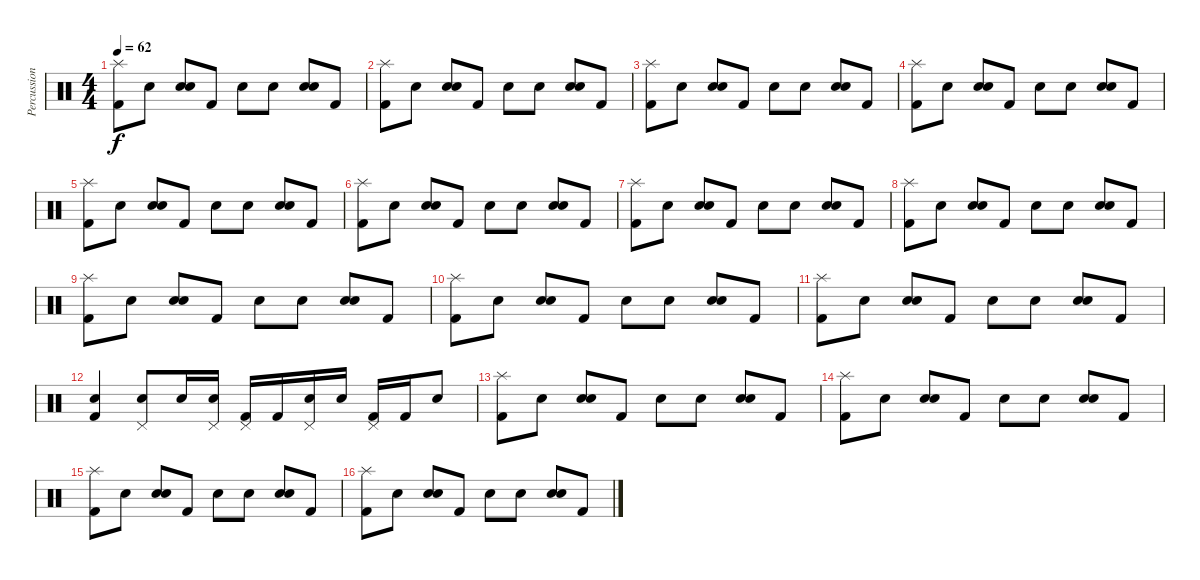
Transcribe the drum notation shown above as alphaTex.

\track ("Percussions" "Percussion") {instrument percussion}
\staff {score}
\articulation defaults
\ts (4 4)
\tempo 62
\clef neutral
\ks c
("Kick (hit) 2" "Splash (hit)").8{dy f} "Electric Snare (hit)".8 ("Snare (hit) 2" "Electric Snare (hit)").8 "Kick (hit) 2".8 "Electric Snare (hit)".8 "Electric Snare (hit)".8 ("Snare (hit) 2" "Electric Snare (hit)").8 "Kick (hit) 2".8 |
("Kick (hit) 2" "Splash (hit)").8 "Electric Snare (hit)".8 ("Snare (hit) 2" "Electric Snare (hit)").8 "Kick (hit) 2".8 "Electric Snare (hit)".8 "Electric Snare (hit)".8 ("Snare (hit) 2" "Electric Snare (hit)").8 "Kick (hit) 2".8 |
("Kick (hit) 2" "Splash (hit)").8 "Electric Snare (hit)".8 ("Snare (hit) 2" "Electric Snare (hit)").8 "Kick (hit) 2".8 "Electric Snare (hit)".8 "Electric Snare (hit)".8 ("Snare (hit) 2" "Electric Snare (hit)").8 "Kick (hit) 2".8 |
("Kick (hit) 2" "Splash (hit)").8 "Electric Snare (hit)".8 ("Snare (hit) 2" "Electric Snare (hit)").8 "Kick (hit) 2".8 "Electric Snare (hit)".8 "Electric Snare (hit)".8 ("Snare (hit) 2" "Electric Snare (hit)").8 "Kick (hit) 2".8 |
("Kick (hit) 2" "Splash (hit)").8 "Electric Snare (hit)".8 ("Snare (hit) 2" "Electric Snare (hit)").8 "Kick (hit) 2".8 "Electric Snare (hit)".8 "Electric Snare (hit)".8 ("Snare (hit) 2" "Electric Snare (hit)").8 "Kick (hit) 2".8 |
("Kick (hit) 2" "Splash (hit)").8 "Electric Snare (hit)".8 ("Snare (hit) 2" "Electric Snare (hit)").8 "Kick (hit) 2".8 "Electric Snare (hit)".8 "Electric Snare (hit)".8 ("Snare (hit) 2" "Electric Snare (hit)").8 "Kick (hit) 2".8 |
("Kick (hit) 2" "Splash (hit)").8 "Electric Snare (hit)".8 ("Snare (hit) 2" "Electric Snare (hit)").8 "Kick (hit) 2".8 "Electric Snare (hit)".8 "Electric Snare (hit)".8 ("Snare (hit) 2" "Electric Snare (hit)").8 "Kick (hit) 2".8 |
("Kick (hit) 2" "Splash (hit)").8 "Electric Snare (hit)".8 ("Snare (hit) 2" "Electric Snare (hit)").8 "Kick (hit) 2".8 "Electric Snare (hit)".8 "Electric Snare (hit)".8 ("Snare (hit) 2" "Electric Snare (hit)").8 "Kick (hit) 2".8 |
("Kick (hit) 2" "Splash (hit)").8 "Electric Snare (hit)".8 ("Snare (hit) 2" "Electric Snare (hit)").8 "Kick (hit) 2".8 "Electric Snare (hit)".8 "Electric Snare (hit)".8 ("Snare (hit) 2" "Electric Snare (hit)").8 "Kick (hit) 2".8 |
("Kick (hit) 2" "Splash (hit)").8 "Electric Snare (hit)".8 ("Snare (hit) 2" "Electric Snare (hit)").8 "Kick (hit) 2".8 "Electric Snare (hit)".8 "Electric Snare (hit)".8 ("Snare (hit) 2" "Electric Snare (hit)").8 "Kick (hit) 2".8 |
("Kick (hit) 2" "Splash (hit)").8 "Electric Snare (hit)".8 ("Snare (hit) 2" "Electric Snare (hit)").8 "Kick (hit) 2".8 "Electric Snare (hit)".8 "Electric Snare (hit)".8 ("Snare (hit) 2" "Electric Snare (hit)").8 "Kick (hit) 2".8 |
("Kick (hit) 2" "Electric Snare (hit)").4 ("Snare (hit) 2" "Pedal Hi-Hat (hit)").8 "Snare (hit) 2".16 ("Snare (hit) 2" "Pedal Hi-Hat (hit)").16 ("Kick (hit) 2" "Pedal Hi-Hat (hit)").16 "Kick (hit) 2".16 ("Snare (hit) 2" "Pedal Hi-Hat (hit)").16 "Snare (hit) 2".16 ("Kick (hit) 2" "Pedal Hi-Hat (hit)").16 "Kick (hit) 2".16 "Snare (hit) 2".8 |
("Kick (hit) 2" "Splash (hit)").8 "Electric Snare (hit)".8 ("Snare (hit) 2" "Electric Snare (hit)").8 "Kick (hit) 2".8 "Electric Snare (hit)".8 "Electric Snare (hit)".8 ("Snare (hit) 2" "Electric Snare (hit)").8 "Kick (hit) 2".8 |
("Kick (hit) 2" "Splash (hit)").8 "Electric Snare (hit)".8 ("Snare (hit) 2" "Electric Snare (hit)").8 "Kick (hit) 2".8 "Electric Snare (hit)".8 "Electric Snare (hit)".8 ("Snare (hit) 2" "Electric Snare (hit)").8 "Kick (hit) 2".8 |
("Kick (hit) 2" "Splash (hit)").8 "Electric Snare (hit)".8 ("Snare (hit) 2" "Electric Snare (hit)").8 "Kick (hit) 2".8 "Electric Snare (hit)".8 "Electric Snare (hit)".8 ("Snare (hit) 2" "Electric Snare (hit)").8 "Kick (hit) 2".8 |
("Kick (hit) 2" "Splash (hit)").8 "Electric Snare (hit)".8 ("Snare (hit) 2" "Electric Snare (hit)").8 "Kick (hit) 2".8 "Electric Snare (hit)".8 "Electric Snare (hit)".8 ("Snare (hit) 2" "Electric Snare (hit)").8 "Kick (hit) 2".8
